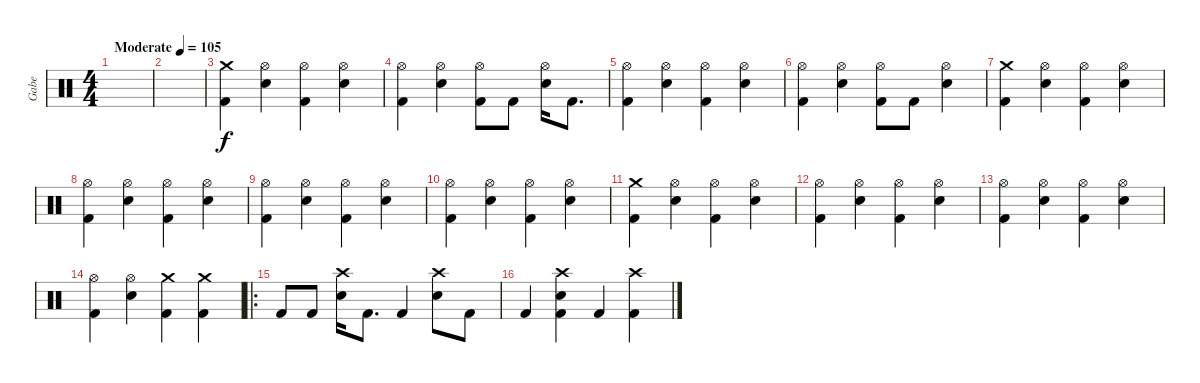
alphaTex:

\track ("Gabe" "Gabe") {instrument percussion}
\staff {score}
\articulation defaults
\ts (4 4)
\tempo (105 "Moderate")
\clef neutral
\ks c
|
|
("Crash medium (hit)" "Kick (hit) 2").4 ("Hi-Hat (open)" "Electric Snare (hit)").4 ("Hi-Hat (open)" "Kick (hit) 2").4 ("Hi-Hat (open)" "Electric Snare (hit)").4 |
("Hi-Hat (open)" "Kick (hit) 2").4 ("Hi-Hat (open)" "Electric Snare (hit)").4 ("Hi-Hat (open)" "Kick (hit) 2").8 "Kick (hit) 2".8 ("Hi-Hat (open)" "Electric Snare (hit)").16 "Kick (hit) 2".8{d} |
("Hi-Hat (open)" "Kick (hit) 2").4 ("Hi-Hat (open)" "Electric Snare (hit)").4 ("Hi-Hat (open)" "Kick (hit) 2").4 ("Hi-Hat (open)" "Electric Snare (hit)").4 |
("Hi-Hat (open)" "Kick (hit) 2").4 ("Hi-Hat (open)" "Electric Snare (hit)").4 ("Hi-Hat (open)" "Kick (hit) 2").8 "Kick (hit) 2".8 ("Hi-Hat (open)" "Electric Snare (hit)").4 |
("Crash medium (hit)" "Kick (hit) 2").4 ("Hi-Hat (open)" "Electric Snare (hit)").4 ("Hi-Hat (open)" "Kick (hit) 2").4 ("Hi-Hat (open)" "Electric Snare (hit)").4 |
("Hi-Hat (open)" "Kick (hit) 2").4 ("Hi-Hat (open)" "Electric Snare (hit)").4 ("Hi-Hat (open)" "Kick (hit) 2").4 ("Hi-Hat (open)" "Electric Snare (hit)").4 |
("Hi-Hat (open)" "Kick (hit) 2").4 ("Hi-Hat (open)" "Electric Snare (hit)").4 ("Hi-Hat (open)" "Kick (hit) 2").4 ("Hi-Hat (open)" "Electric Snare (hit)").4 |
("Hi-Hat (open)" "Kick (hit) 2").4 ("Hi-Hat (open)" "Electric Snare (hit)").4 ("Hi-Hat (open)" "Kick (hit) 2").4 ("Hi-Hat (open)" "Electric Snare (hit)").4 |
("Crash medium (hit)" "Kick (hit) 2").4 ("Hi-Hat (open)" "Electric Snare (hit)").4 ("Hi-Hat (open)" "Kick (hit) 2").4 ("Hi-Hat (open)" "Electric Snare (hit)").4 |
("Hi-Hat (open)" "Kick (hit) 2").4 ("Hi-Hat (open)" "Electric Snare (hit)").4 ("Hi-Hat (open)" "Kick (hit) 2").4 ("Hi-Hat (open)" "Electric Snare (hit)").4 |
("Hi-Hat (open)" "Kick (hit) 2").4 ("Hi-Hat (open)" "Electric Snare (hit)").4 ("Hi-Hat (open)" "Kick (hit) 2").4 ("Hi-Hat (open)" "Electric Snare (hit)").4 |
("Hi-Hat (open)" "Kick (hit) 2").4 ("Hi-Hat (open)" "Electric Snare (hit)").4 ("Crash medium (hit)" "Kick (hit) 2").4 ("Crash medium (hit)" "Kick (hit) 2").4 |
\ro "Kick (hit) 2".8 "Kick (hit) 2".8
("Crash high (hit)" "Electric Snare (hit)").16 "Kick (hit) 2".8{d} "Kick (hit) 2".4 ("Crash high (hit)" "Electric Snare (hit)").8 "Kick (hit) 2".8 |
"Kick (hit) 2".4 ("Crash high (hit)" "Electric Snare (hit)" "Kick (hit) 2").4 "Kick (hit) 2".4 ("Crash high (hit)" "Kick (hit) 2").4
